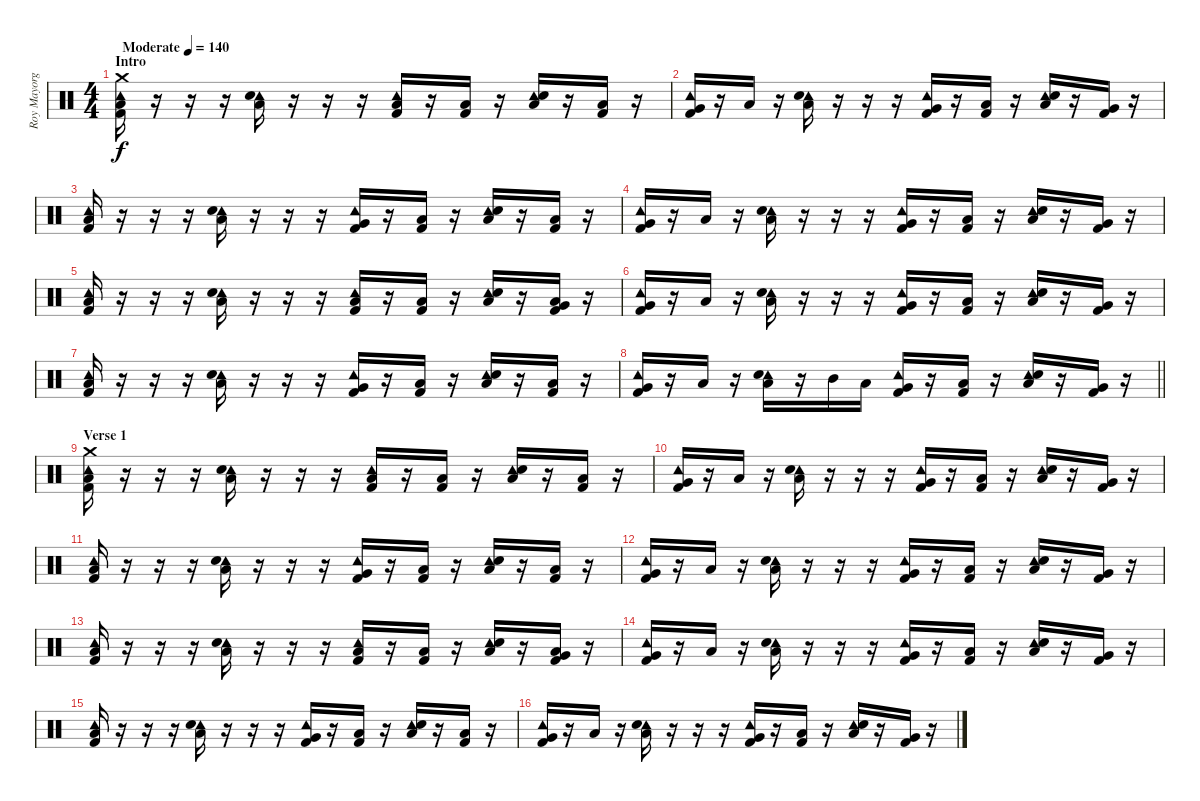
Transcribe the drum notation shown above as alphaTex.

\track ("Roy Mayorga" "Roy Mayorg") {instrument percussion}
\staff {score}
\articulation defaults
\ts (4 4)
\section ("" "Intro")
\tempo (140 "Moderate")
\clef neutral
\ks c
("Crash medium (hit)" "Tambourine (hit)" "Low Tom (hit)" "Kick (hit) 2").16{dy f} r.16 r.16 r.16 ("Tambourine (hit)" "Low Tom (hit)" "Snare (hit) 2").16 r.16 r.16 r.16 ("Tambourine (hit)" "Low Tom (hit)" "Kick (hit) 2").16 r.16 ("Low Floor Tom (hit)" "Kick (hit) 2").16 r.16 ("Tambourine (hit)" "Low Tom (hit)" "Snare (hit) 2").16 r.16 ("Low Floor Tom (hit)" "Kick (hit) 2").16 r.16 |
("Tambourine (hit)" "Very Low Tom (hit)" "Kick (hit) 2").16 r.16 "Low Tom (hit)".16 r.16 ("Tambourine (hit)" "Low Tom (hit)" "Snare (hit) 2").16 r.16 r.16 r.16 ("Tambourine (hit)" "Very Low Tom (hit)" "Kick (hit) 2").16 r.16 ("Low Tom (hit)" "Kick (hit) 2").16 r.16 ("Tambourine (hit)" "Low Tom (hit)" "Snare (hit) 2").16 r.16 ("Very Low Tom (hit)" "Kick (hit) 2").16 r.16 |
("Tambourine (hit)" "Low Tom (hit)" "Kick (hit) 2").16 r.16 r.16 r.16 ("Tambourine (hit)" "Low Tom (hit)" "Snare (hit) 2").16 r.16 r.16 r.16 ("Tambourine (hit)" "Very Low Tom (hit)" "Kick (hit) 2").16 r.16 ("Low Tom (hit)" "Kick (hit) 2").16 r.16 ("Tambourine (hit)" "Low Tom (hit)" "Snare (hit) 2").16 r.16 ("Low Floor Tom (hit)" "Kick (hit) 2").16 r.16 |
("Tambourine (hit)" "Very Low Tom (hit)" "Kick (hit) 2").16 r.16 "Low Tom (hit)".16 r.16 ("Tambourine (hit)" "Low Tom (hit)" "Snare (hit) 2").16 r.16 r.16 r.16 ("Tambourine (hit)" "Very Low Tom (hit)" "Kick (hit) 2").16 r.16 ("Low Tom (hit)" "Kick (hit) 2").16 r.16 ("Tambourine (hit)" "Low Tom (hit)" "Snare (hit) 2").16 r.16 ("Very Low Tom (hit)" "Kick (hit) 2").16 r.16 |
("Tambourine (hit)" "Low Tom (hit)" "Kick (hit) 2").16 r.16 r.16 r.16 ("Tambourine (hit)" "Low Tom (hit)" "Snare (hit) 2").16 r.16 r.16 r.16 ("Tambourine (hit)" "Low Tom (hit)" "Kick (hit) 2").16 r.16 ("Low Floor Tom (hit)" "Kick (hit) 2").16 r.16 ("Tambourine (hit)" "Low Tom (hit)" "Snare (hit) 2").16 r.16 ("Low Floor Tom (hit)" "Very Low Tom (hit)" "Kick (hit) 2").16 r.16 |
("Tambourine (hit)" "Very Low Tom (hit)" "Kick (hit) 2").16 r.16 "Low Tom (hit)".16 r.16 ("Tambourine (hit)" "Low Tom (hit)" "Snare (hit) 2").16 r.16 r.16 r.16 ("Tambourine (hit)" "Very Low Tom (hit)" "Kick (hit) 2").16 r.16 ("Low Tom (hit)" "Kick (hit) 2").16 r.16 ("Tambourine (hit)" "Low Tom (hit)" "Snare (hit) 2").16 r.16 ("Very Low Tom (hit)" "Kick (hit) 2").16 r.16 |
("Tambourine (hit)" "Low Tom (hit)" "Kick (hit) 2").16 r.16 r.16 r.16 ("Tambourine (hit)" "Low Tom (hit)" "Snare (hit) 2").16 r.16 r.16 r.16 ("Tambourine (hit)" "Very Low Tom (hit)" "Kick (hit) 2").16 r.16 ("Low Tom (hit)" "Kick (hit) 2").16 r.16 ("Tambourine (hit)" "Low Tom (hit)" "Snare (hit) 2").16 r.16 ("Low Floor Tom (hit)" "Kick (hit) 2").16 r.16 |
\barLineRight lightlight
("Tambourine (hit)" "Very Low Tom (hit)" "Kick (hit) 2").16 r.16 "Low Tom (hit)".16 r.16 ("Tambourine (hit)" "Low Tom (hit)" "Snare (hit) 2").16 r.16 "Mid Tom (hit)".16 "Low Tom (hit)".16 ("Tambourine (hit)" "Very Low Tom (hit)" "Kick (hit) 2").16 r.16 ("Low Tom (hit)" "Kick (hit) 2").16 r.16 ("Tambourine (hit)" "Low Tom (hit)" "Snare (hit) 2").16 r.16 ("Very Low Tom (hit)" "Kick (hit) 2").16 r.16 |
\section ("" "Verse 1")
("Crash medium (hit)" "Tambourine (hit)" "Low Tom (hit)" "Kick (hit) 2").16 r.16 r.16 r.16 ("Tambourine (hit)" "Low Tom (hit)" "Snare (hit) 2").16 r.16 r.16 r.16 ("Tambourine (hit)" "Low Tom (hit)" "Kick (hit) 2").16 r.16 ("Low Floor Tom (hit)" "Kick (hit) 2").16 r.16 ("Tambourine (hit)" "Low Tom (hit)" "Snare (hit) 2").16 r.16 ("Low Floor Tom (hit)" "Kick (hit) 2").16 r.16 |
("Tambourine (hit)" "Very Low Tom (hit)" "Kick (hit) 2").16 r.16 "Low Tom (hit)".16 r.16 ("Tambourine (hit)" "Low Tom (hit)" "Snare (hit) 2").16 r.16 r.16 r.16 ("Tambourine (hit)" "Very Low Tom (hit)" "Kick (hit) 2").16 r.16 ("Low Tom (hit)" "Kick (hit) 2").16 r.16 ("Tambourine (hit)" "Low Tom (hit)" "Snare (hit) 2").16 r.16 ("Very Low Tom (hit)" "Kick (hit) 2").16 r.16 |
("Tambourine (hit)" "Low Tom (hit)" "Kick (hit) 2").16 r.16 r.16 r.16 ("Tambourine (hit)" "Low Tom (hit)" "Snare (hit) 2").16 r.16 r.16 r.16 ("Tambourine (hit)" "Very Low Tom (hit)" "Kick (hit) 2").16 r.16 ("Low Tom (hit)" "Kick (hit) 2").16 r.16 ("Tambourine (hit)" "Low Tom (hit)" "Snare (hit) 2").16 r.16 ("Low Floor Tom (hit)" "Kick (hit) 2").16 r.16 |
("Tambourine (hit)" "Very Low Tom (hit)" "Kick (hit) 2").16 r.16 "Low Tom (hit)".16 r.16 ("Tambourine (hit)" "Low Tom (hit)" "Snare (hit) 2").16 r.16 r.16 r.16 ("Tambourine (hit)" "Very Low Tom (hit)" "Kick (hit) 2").16 r.16 ("Low Tom (hit)" "Kick (hit) 2").16 r.16 ("Tambourine (hit)" "Low Tom (hit)" "Snare (hit) 2").16 r.16 ("Very Low Tom (hit)" "Kick (hit) 2").16 r.16 |
("Tambourine (hit)" "Low Tom (hit)" "Kick (hit) 2").16 r.16 r.16 r.16 ("Tambourine (hit)" "Low Tom (hit)" "Snare (hit) 2").16 r.16 r.16 r.16 ("Tambourine (hit)" "Low Tom (hit)" "Kick (hit) 2").16 r.16 ("Low Floor Tom (hit)" "Kick (hit) 2").16 r.16 ("Tambourine (hit)" "Low Tom (hit)" "Snare (hit) 2").16 r.16 ("Low Floor Tom (hit)" "Very Low Tom (hit)" "Kick (hit) 2").16 r.16 |
("Tambourine (hit)" "Very Low Tom (hit)" "Kick (hit) 2").16 r.16 "Low Tom (hit)".16 r.16 ("Tambourine (hit)" "Low Tom (hit)" "Snare (hit) 2").16 r.16 r.16 r.16 ("Tambourine (hit)" "Very Low Tom (hit)" "Kick (hit) 2").16 r.16 ("Low Tom (hit)" "Kick (hit) 2").16 r.16 ("Tambourine (hit)" "Low Tom (hit)" "Snare (hit) 2").16 r.16 ("Very Low Tom (hit)" "Kick (hit) 2").16 r.16 |
("Tambourine (hit)" "Low Tom (hit)" "Kick (hit) 2").16 r.16 r.16 r.16 ("Tambourine (hit)" "Low Tom (hit)" "Snare (hit) 2").16 r.16 r.16 r.16 ("Tambourine (hit)" "Very Low Tom (hit)" "Kick (hit) 2").16 r.16 ("Low Tom (hit)" "Kick (hit) 2").16 r.16 ("Tambourine (hit)" "Low Tom (hit)" "Snare (hit) 2").16 r.16 ("Low Floor Tom (hit)" "Kick (hit) 2").16 r.16 |
("Tambourine (hit)" "Very Low Tom (hit)" "Kick (hit) 2").16 r.16 "Low Tom (hit)".16 r.16 ("Tambourine (hit)" "Low Tom (hit)" "Snare (hit) 2").16 r.16 r.16 r.16 ("Tambourine (hit)" "Very Low Tom (hit)" "Kick (hit) 2").16 r.16 ("Low Tom (hit)" "Kick (hit) 2").16 r.16 ("Tambourine (hit)" "Low Tom (hit)" "Snare (hit) 2").16 r.16 ("Very Low Tom (hit)" "Kick (hit) 2").16 r.16
